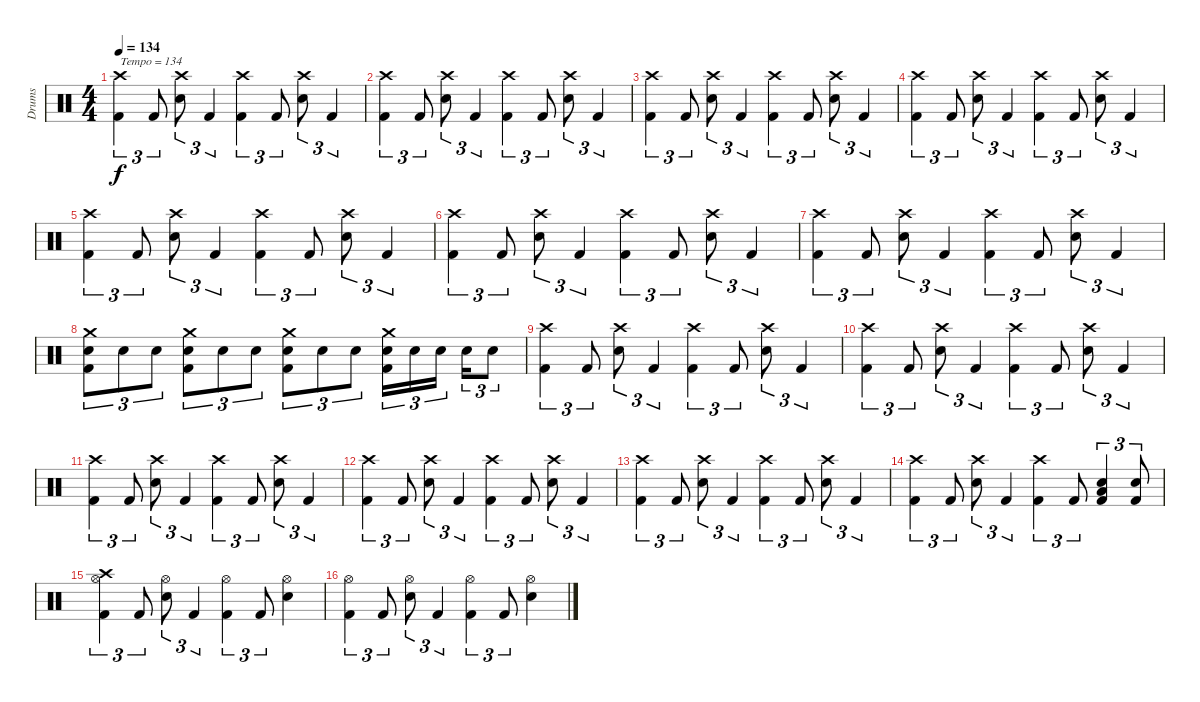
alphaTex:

\track ("Drums" "Drums") {instrument percussion}
\staff {score}
\articulation defaults
\ts (4 4)
\tempo 134
\clef neutral
\ks c
("Crash high (hit)" "Kick (hit) 2").4{tu (3 2) txt "Tempo = 134" dy f} "Kick (hit) 2".8{tu (3 2)} ("Crash high (hit)" "Electric Snare (hit)").8{tu (3 2)} "Kick (hit) 2".4{tu (3 2)} ("Crash high (hit)" "Kick (hit) 2").4{tu (3 2)} "Kick (hit) 2".8{tu (3 2)} ("Crash high (hit)" "Electric Snare (hit)").8{tu (3 2)} "Kick (hit) 2".4{tu (3 2)} |
("Crash high (hit)" "Kick (hit) 2").4{tu (3 2)} "Kick (hit) 2".8{tu (3 2)} ("Crash high (hit)" "Electric Snare (hit)").8{tu (3 2)} "Kick (hit) 2".4{tu (3 2)} ("Crash high (hit)" "Kick (hit) 2").4{tu (3 2)} "Kick (hit) 2".8{tu (3 2)} ("Crash high (hit)" "Electric Snare (hit)").8{tu (3 2)} "Kick (hit) 2".4{tu (3 2)} |
("Crash high (hit)" "Kick (hit) 2").4{tu (3 2)} "Kick (hit) 2".8{tu (3 2)} ("Crash high (hit)" "Electric Snare (hit)").8{tu (3 2)} "Kick (hit) 2".4{tu (3 2)} ("Crash high (hit)" "Kick (hit) 2").4{tu (3 2)} "Kick (hit) 2".8{tu (3 2)} ("Crash high (hit)" "Electric Snare (hit)").8{tu (3 2)} "Kick (hit) 2".4{tu (3 2)} |
("Crash high (hit)" "Kick (hit) 2").4{tu (3 2)} "Kick (hit) 2".8{tu (3 2)} ("Crash high (hit)" "Electric Snare (hit)").8{tu (3 2)} "Kick (hit) 2".4{tu (3 2)} ("Crash high (hit)" "Kick (hit) 2").4{tu (3 2)} "Kick (hit) 2".8{tu (3 2)} ("Crash high (hit)" "Electric Snare (hit)").8{tu (3 2)} "Kick (hit) 2".4{tu (3 2)} |
("Crash high (hit)" "Kick (hit) 2").4{tu (3 2)} "Kick (hit) 2".8{tu (3 2)} ("Crash high (hit)" "Electric Snare (hit)").8{tu (3 2)} "Kick (hit) 2".4{tu (3 2)} ("Crash high (hit)" "Kick (hit) 2").4{tu (3 2)} "Kick (hit) 2".8{tu (3 2)} ("Crash high (hit)" "Electric Snare (hit)").8{tu (3 2)} "Kick (hit) 2".4{tu (3 2)} |
("Crash high (hit)" "Kick (hit) 2").4{tu (3 2)} "Kick (hit) 2".8{tu (3 2)} ("Crash high (hit)" "Electric Snare (hit)").8{tu (3 2)} "Kick (hit) 2".4{tu (3 2)} ("Crash high (hit)" "Kick (hit) 2").4{tu (3 2)} "Kick (hit) 2".8{tu (3 2)} ("Crash high (hit)" "Electric Snare (hit)").8{tu (3 2)} "Kick (hit) 2".4{tu (3 2)} |
("Crash high (hit)" "Kick (hit) 2").4{tu (3 2)} "Kick (hit) 2".8{tu (3 2)} ("Crash high (hit)" "Electric Snare (hit)").8{tu (3 2)} "Kick (hit) 2".4{tu (3 2)} ("Crash high (hit)" "Kick (hit) 2").4{tu (3 2)} "Kick (hit) 2".8{tu (3 2)} ("Crash high (hit)" "Electric Snare (hit)").8{tu (3 2)} "Kick (hit) 2".4{tu (3 2)} |
("Crash medium (hit)" "Electric Snare (hit)" "Kick (hit) 2").8{tu (3 2)} "Electric Snare (hit)".8{tu (3 2)} "Electric Snare (hit)".8{tu (3 2)} ("Crash medium (hit)" "Electric Snare (hit)" "Kick (hit) 2").8{tu (3 2)} "Electric Snare (hit)".8{tu (3 2)} "Electric Snare (hit)".8{tu (3 2)} ("Crash medium (hit)" "Electric Snare (hit)" "Kick (hit) 2").8{tu (3 2)} "Electric Snare (hit)".8{tu (3 2)} "Electric Snare (hit)".8{tu (3 2)} ("Crash medium (hit)" "Electric Snare (hit)" "Kick (hit) 2").16{tu (3 2)} "Electric Snare (hit)".16{tu (3 2)} "Electric Snare (hit)".16{tu (3 2)} "Electric Snare (hit)".16{tu (3 2)} "Electric Snare (hit)".8{tu (3 2)} |
("Crash high (hit)" "Kick (hit) 2").4{tu (3 2)} "Kick (hit) 2".8{tu (3 2)} ("Crash high (hit)" "Electric Snare (hit)").8{tu (3 2)} "Kick (hit) 2".4{tu (3 2)} ("Crash high (hit)" "Kick (hit) 2").4{tu (3 2)} "Kick (hit) 2".8{tu (3 2)} ("Crash high (hit)" "Electric Snare (hit)").8{tu (3 2)} "Kick (hit) 2".4{tu (3 2)} |
("Crash high (hit)" "Kick (hit) 2").4{tu (3 2)} "Kick (hit) 2".8{tu (3 2)} ("Crash high (hit)" "Electric Snare (hit)").8{tu (3 2)} "Kick (hit) 2".4{tu (3 2)} ("Crash high (hit)" "Kick (hit) 2").4{tu (3 2)} "Kick (hit) 2".8{tu (3 2)} ("Crash high (hit)" "Electric Snare (hit)").8{tu (3 2)} "Kick (hit) 2".4{tu (3 2)} |
("Crash high (hit)" "Kick (hit) 2").4{tu (3 2)} "Kick (hit) 2".8{tu (3 2)} ("Crash high (hit)" "Electric Snare (hit)").8{tu (3 2)} "Kick (hit) 2".4{tu (3 2)} ("Crash high (hit)" "Kick (hit) 2").4{tu (3 2)} "Kick (hit) 2".8{tu (3 2)} ("Crash high (hit)" "Electric Snare (hit)").8{tu (3 2)} "Kick (hit) 2".4{tu (3 2)} |
("Crash high (hit)" "Kick (hit) 2").4{tu (3 2)} "Kick (hit) 2".8{tu (3 2)} ("Crash high (hit)" "Electric Snare (hit)").8{tu (3 2)} "Kick (hit) 2".4{tu (3 2)} ("Crash high (hit)" "Kick (hit) 2").4{tu (3 2)} "Kick (hit) 2".8{tu (3 2)} ("Crash high (hit)" "Electric Snare (hit)").8{tu (3 2)} "Kick (hit) 2".4{tu (3 2)} |
("Crash high (hit)" "Kick (hit) 2").4{tu (3 2)} "Kick (hit) 2".8{tu (3 2)} ("Crash high (hit)" "Electric Snare (hit)").8{tu (3 2)} "Kick (hit) 2".4{tu (3 2)} ("Crash high (hit)" "Kick (hit) 2").4{tu (3 2)} "Kick (hit) 2".8{tu (3 2)} ("Crash high (hit)" "Electric Snare (hit)").8{tu (3 2)} "Kick (hit) 2".4{tu (3 2)} |
("Crash high (hit)" "Kick (hit) 2").4{tu (3 2)} "Kick (hit) 2".8{tu (3 2)} ("Crash high (hit)" "Electric Snare (hit)").8{tu (3 2)} "Kick (hit) 2".4{tu (3 2)} ("Crash high (hit)" "Kick (hit) 2").4{tu (3 2)} "Kick (hit) 2".8{tu (3 2)} ("Low Floor Tom (hit)" "Electric Snare (hit)" "Kick (hit) 2").4{tu (3 2)} ("Electric Snare (hit)" "Kick (hit) 2").8{tu (3 2)} |
("Crash high (hit)" "Hi-Hat (open)" "Kick (hit) 2").4{tu (3 2)} "Kick (hit) 2".8{tu (3 2)} ("Hi-Hat (open)" "Electric Snare (hit)").8{tu (3 2)} "Kick (hit) 2".4{tu (3 2)} ("Hi-Hat (open)" "Kick (hit) 2").4{tu (3 2)} "Kick (hit) 2".8{tu (3 2)} ("Hi-Hat (open)" "Electric Snare (hit)").4 |
("Hi-Hat (open)" "Kick (hit) 2").4{tu (3 2)} "Kick (hit) 2".8{tu (3 2)} ("Hi-Hat (open)" "Electric Snare (hit)").8{tu (3 2)} "Kick (hit) 2".4{tu (3 2)} ("Hi-Hat (open)" "Kick (hit) 2").4{tu (3 2)} "Kick (hit) 2".8{tu (3 2)} ("Hi-Hat (open)" "Electric Snare (hit)").4
